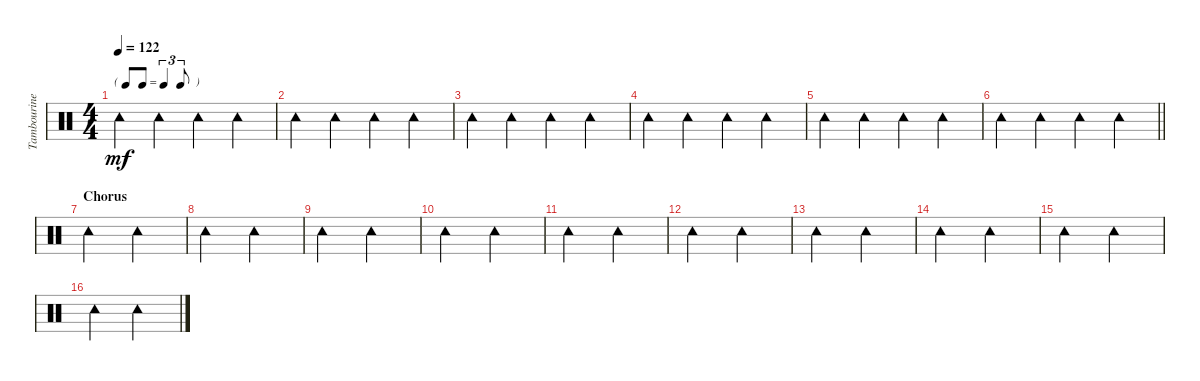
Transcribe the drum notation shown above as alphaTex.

\track ("Tambourine" "Tambourine") {instrument percussion}
\staff {score}
\articulation defaults
\ts (4 4)
\tf triplet8th
\tempo 122
\clef neutral
\ks c "Tambourine (hit)".4{dy mf} "Tambourine (hit)".4 "Tambourine (hit)".4 "Tambourine (hit)".4
|
"Tambourine (hit)".4 "Tambourine (hit)".4 "Tambourine (hit)".4 "Tambourine (hit)".4 |
"Tambourine (hit)".4 "Tambourine (hit)".4 "Tambourine (hit)".4 "Tambourine (hit)".4 |
"Tambourine (hit)".4 "Tambourine (hit)".4 "Tambourine (hit)".4 "Tambourine (hit)".4 |
"Tambourine (hit)".4 "Tambourine (hit)".4 "Tambourine (hit)".4 "Tambourine (hit)".4 |
\barLineRight lightlight "Tambourine (hit)".4 "Tambourine (hit)".4 "Tambourine (hit)".4 "Tambourine (hit)".4
|
\section ("" "Chorus")
"Tambourine (hit)".2 "Tambourine (hit)".2 |
"Tambourine (hit)".2 "Tambourine (hit)".2 |
"Tambourine (hit)".2 "Tambourine (hit)".2 |
"Tambourine (hit)".2 "Tambourine (hit)".2 |
"Tambourine (hit)".2 "Tambourine (hit)".2 |
"Tambourine (hit)".2 "Tambourine (hit)".2 |
"Tambourine (hit)".2 "Tambourine (hit)".2 |
"Tambourine (hit)".2 "Tambourine (hit)".2 |
"Tambourine (hit)".2 "Tambourine (hit)".2 |
"Tambourine (hit)".2 "Tambourine (hit)".2
